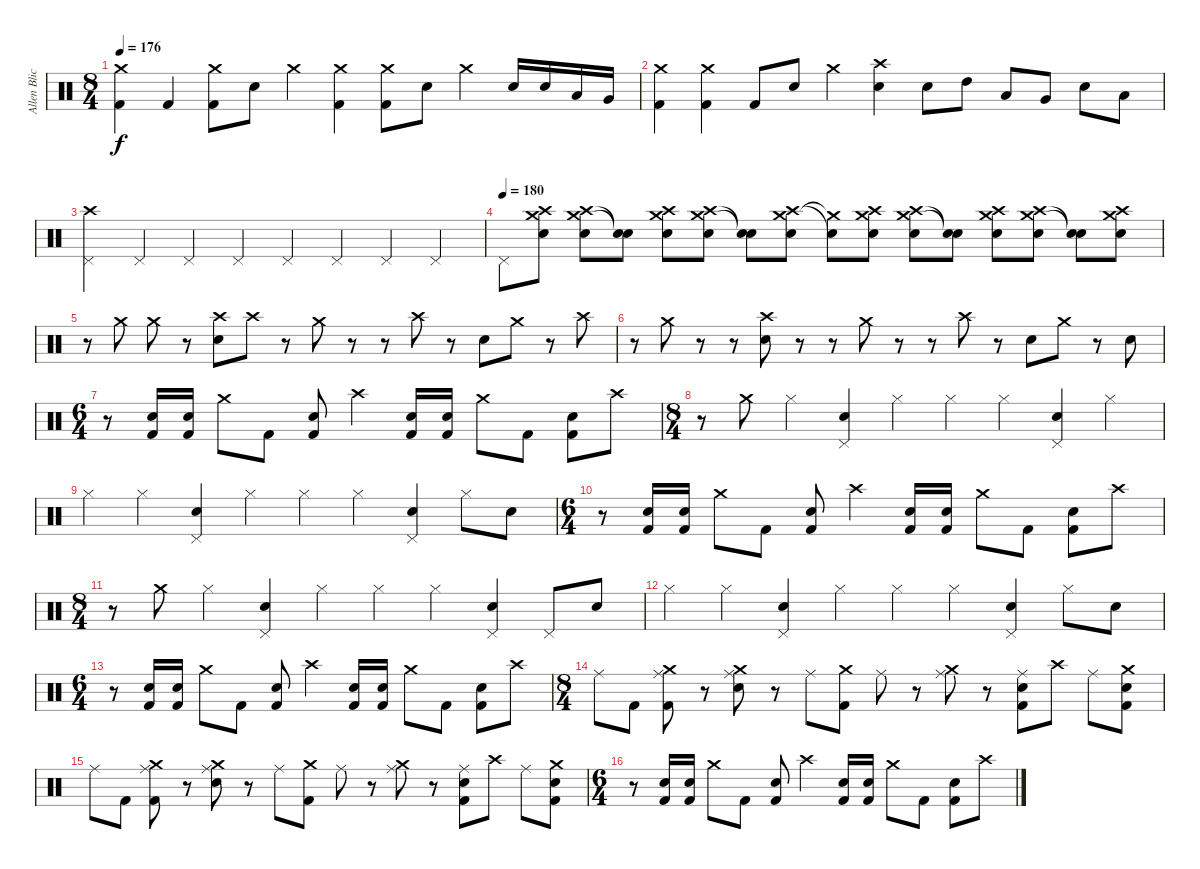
\track ("Allen Blickle" "Allen Blic") {instrument percussion}
\staff {score}
\articulation defaults
\ts (8 4)
\tempo 176
\clef neutral
\ks c
("Crash medium (hit)" "Kick (hit) 2").4{dy f} "Kick (hit) 2".4 ("Crash medium (hit)" "Kick (hit) 2").8 "Electric Snare (hit)".8 "Crash medium (hit)".4 ("Crash medium (hit)" "Kick (hit) 2").4 ("Crash medium (hit)" "Kick (hit) 2").8 "Electric Snare (hit)".8 "Crash medium (hit)".4 "Electric Snare (hit)".16 "Electric Snare (hit)".16 "Low Tom (hit)".16 "Very Low Tom (hit)".16 |
("Crash medium (hit)" "Kick (hit) 2").4 ("Crash medium (hit)" "Kick (hit) 2").4 "Kick (hit) 2".8 "Electric Snare (hit)".8 "Crash medium (hit)".4 ("Crash high (hit)" "Electric Snare (hit)").4 "Electric Snare (hit)".8 "High Tom (hit)".8 "Low Tom (hit)".8 "Very Low Tom (hit)".8 "Electric Snare (hit)".8 "Low Floor Tom (hit)".8 |
("Pedal Hi-Hat (hit)" "Crash high (hit)").4 "Pedal Hi-Hat (hit)".4 "Pedal Hi-Hat (hit)".4 "Pedal Hi-Hat (hit)".4 "Pedal Hi-Hat (hit)".4 "Pedal Hi-Hat (hit)".4 "Pedal Hi-Hat (hit)".4 "Pedal Hi-Hat (hit)".4 |
\tempo (180)
"Pedal Hi-Hat (hit)".8 ("Crash medium (hit)" "Crash high (hit)" "Electric Snare (hit)").8 ("Crash medium (hit)" "Crash high (hit)" "Electric Snare (hit)").8 ("Snare (hit)"{t} "Snare (hit)"{t}).8 ("Crash medium (hit)" "Crash high (hit)" "Electric Snare (hit)").8 ("Crash medium (hit)" "Crash high (hit)" "Electric Snare (hit)").8 ("Snare (hit)"{t} "Snare (hit)"{t}).8 ("Crash medium (hit)" "Crash high (hit)" "Electric Snare (hit)").8 ("Crash medium (hit)"{t} "Snare (hit)"{t}).8 ("Crash medium (hit)" "Crash high (hit)" "Electric Snare (hit)").8 ("Crash medium (hit)" "Crash high (hit)" "Electric Snare (hit)").8 ("Snare (hit)"{t} "Snare (hit)"{t}).8 ("Crash medium (hit)" "Crash high (hit)" "Electric Snare (hit)").8 ("Crash medium (hit)" "Crash high (hit)" "Electric Snare (hit)").8 ("Snare (hit)"{t} "Snare (hit)"{t}).8 ("Crash medium (hit)" "Crash high (hit)" "Electric Snare (hit)").8 |
r.8 "Crash medium (hit)".8 "Crash medium (hit)".8 r.8 ("Crash high (hit)" "Electric Snare (hit)").8 "Crash high (hit)".8 r.8 "Crash medium (hit)".8 r.8 r.8 "Crash high (hit)".8 r.8 "Electric Snare (hit)".8 "Crash medium (hit)".8 r.8 "Crash high (hit)".8 |
r.8 "Crash medium (hit)".8 r.8 r.8 ("Crash high (hit)" "Electric Snare (hit)").8 r.8 r.8 "Crash medium (hit)".8 r.8 r.8 "Crash high (hit)".8 r.8 "Electric Snare (hit)".8 "Crash medium (hit)".8 r.8 "Electric Snare (hit)".8 |
\ts (6 4)
r.8 ("Electric Snare (hit)" "Kick (hit) 2").16 ("Electric Snare (hit)" "Kick (hit) 2").16 "Crash medium (hit)".8 "Kick (hit) 2".8 ("Electric Snare (hit)" "Kick (hit) 2").8 "Crash high (hit)".4 ("Electric Snare (hit)" "Kick (hit) 2").16 ("Electric Snare (hit)" "Kick (hit) 2").16 "Crash medium (hit)".8 "Kick (hit) 2".8 ("Electric Snare (hit)" "Kick (hit) 2").8 "Crash high (hit)".8 |
\ts (8 4)
r.8 "Crash medium (hit)".8 "Hi-Hat (closed)".4 ("Pedal Hi-Hat (hit)" "Electric Snare (hit)").4 "Hi-Hat (closed)".4 "Hi-Hat (closed)".4 "Hi-Hat (closed)".4 ("Pedal Hi-Hat (hit)" "Electric Snare (hit)").4 "Hi-Hat (closed)".4 |
"Hi-Hat (closed)".4 "Hi-Hat (closed)".4 ("Pedal Hi-Hat (hit)" "Electric Snare (hit)").4 "Hi-Hat (closed)".4 "Hi-Hat (closed)".4 "Hi-Hat (closed)".4 ("Pedal Hi-Hat (hit)" "Electric Snare (hit)").4 "Hi-Hat (closed)".8 "Electric Snare (hit)".8 |
\ts (6 4)
r.8 ("Electric Snare (hit)" "Kick (hit) 2").16 ("Electric Snare (hit)" "Kick (hit) 2").16 "Crash medium (hit)".8 "Kick (hit) 2".8 ("Electric Snare (hit)" "Kick (hit) 2").8 "Crash high (hit)".4 ("Electric Snare (hit)" "Kick (hit) 2").16 ("Electric Snare (hit)" "Kick (hit) 2").16 "Crash medium (hit)".8 "Kick (hit) 2".8 ("Electric Snare (hit)" "Kick (hit) 2").8 "Crash high (hit)".8 |
\ts (8 4)
r.8 "Crash medium (hit)".8 "Hi-Hat (closed)".4 ("Pedal Hi-Hat (hit)" "Electric Snare (hit)").4 "Hi-Hat (closed)".4 "Hi-Hat (closed)".4 "Hi-Hat (closed)".4 ("Pedal Hi-Hat (hit)" "Electric Snare (hit)").4 "Pedal Hi-Hat (hit)".8 "Electric Snare (hit)".8 |
"Hi-Hat (closed)".4 "Hi-Hat (closed)".4 ("Pedal Hi-Hat (hit)" "Electric Snare (hit)").4 "Hi-Hat (closed)".4 "Hi-Hat (closed)".4 "Hi-Hat (closed)".4 ("Pedal Hi-Hat (hit)" "Electric Snare (hit)").4 "Hi-Hat (closed)".8 "Electric Snare (hit)".8 |
\ts (6 4)
r.8 ("Electric Snare (hit)" "Kick (hit) 2").16 ("Electric Snare (hit)" "Kick (hit) 2").16 "Crash medium (hit)".8 "Kick (hit) 2".8 ("Electric Snare (hit)" "Kick (hit) 2").8 "Crash high (hit)".4 ("Electric Snare (hit)" "Kick (hit) 2").16 ("Electric Snare (hit)" "Kick (hit) 2").16 "Crash medium (hit)".8 "Kick (hit) 2".8 ("Electric Snare (hit)" "Kick (hit) 2").8 "Crash high (hit)".8 |
\ts (8 4)
"Ride (middle)".8 "Kick (hit) 2".8 ("Ride (middle)" "Crash medium (hit)" "Kick (hit) 2").8 r.8 ("Ride (middle)" "Crash medium (hit)" "Electric Snare (hit)").8 r.8 "Ride (middle)".8 ("Crash medium (hit)" "Kick (hit) 2").8 "Ride (middle)".8 r.8 ("Ride (middle)" "Crash medium (hit)").8 r.8 ("Ride (middle)" "Electric Snare (hit)" "Kick (hit) 2").8 "Crash high (hit)".8 "Ride (middle)".8 ("Crash medium (hit)" "Electric Snare (hit)" "Kick (hit) 2").8 |
"Ride (middle)".8 "Kick (hit) 2".8 ("Ride (middle)" "Crash medium (hit)" "Kick (hit) 2").8 r.8 ("Ride (middle)" "Crash medium (hit)" "Electric Snare (hit)").8 r.8 "Ride (middle)".8 ("Crash medium (hit)" "Kick (hit) 2").8 "Ride (middle)".8 r.8 ("Ride (middle)" "Crash medium (hit)").8 r.8 ("Ride (middle)" "Electric Snare (hit)" "Kick (hit) 2").8 "Crash high (hit)".8 "Ride (middle)".8 ("Crash medium (hit)" "Electric Snare (hit)" "Kick (hit) 2").8 |
\ts (6 4)
r.8 ("Electric Snare (hit)" "Kick (hit) 2").16 ("Electric Snare (hit)" "Kick (hit) 2").16 "Crash medium (hit)".8 "Kick (hit) 2".8 ("Electric Snare (hit)" "Kick (hit) 2").8 "Crash high (hit)".4 ("Electric Snare (hit)" "Kick (hit) 2").16 ("Electric Snare (hit)" "Kick (hit) 2").16 "Crash medium (hit)".8 "Kick (hit) 2".8 ("Electric Snare (hit)" "Kick (hit) 2").8 "Crash high (hit)".8
